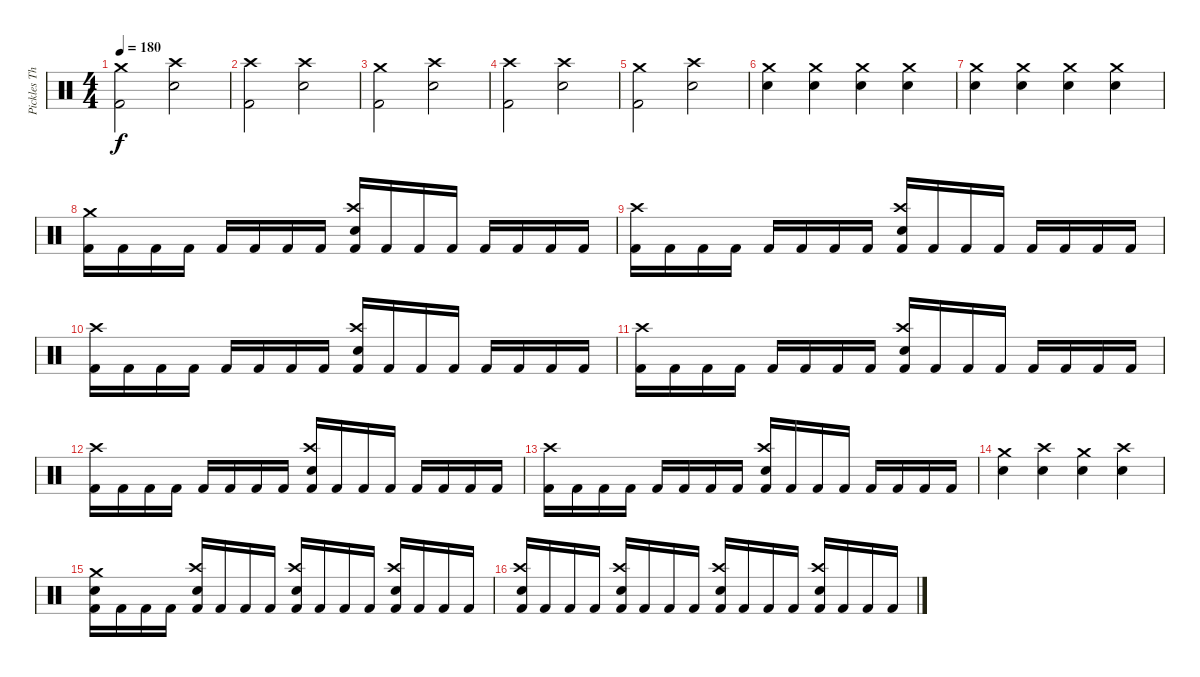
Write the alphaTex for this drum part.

\track ("Pickles The Drummer" "Pickles Th") {instrument percussion}
\staff {score}
\articulation defaults
\ts (4 4)
\tempo 180
\clef neutral
\ks c
("Crash medium (hit)" "Kick (hit) 2").2{dy f} ("Crash high (hit)" "Electric Snare (hit)").2 |
("Crash high (hit)" "Kick (hit) 2").2 ("Crash high (hit)" "Electric Snare (hit)").2 |
("Crash medium (hit)" "Kick (hit) 2").2 ("Crash high (hit)" "Electric Snare (hit)").2 |
("Crash high (hit)" "Kick (hit) 2").2 ("Crash high (hit)" "Electric Snare (hit)").2 |
("Crash medium (hit)" "Kick (hit) 2").2 ("Crash high (hit)" "Electric Snare (hit)").2 |
("Crash medium (hit)" "Electric Snare (hit)").4 ("Crash medium (hit)" "Electric Snare (hit)").4 ("Crash medium (hit)" "Electric Snare (hit)").4 ("Crash medium (hit)" "Electric Snare (hit)").4 |
("Crash medium (hit)" "Electric Snare (hit)").4 ("Crash medium (hit)" "Electric Snare (hit)").4 ("Crash medium (hit)" "Electric Snare (hit)").4 ("Crash medium (hit)" "Electric Snare (hit)").4 |
("Crash medium (hit)" "Kick (hit) 2").16 "Kick (hit) 2".16 "Kick (hit) 2".16 "Kick (hit) 2".16 "Kick (hit) 2".16 "Kick (hit) 2".16 "Kick (hit) 2".16 "Kick (hit) 2".16 ("Crash high (hit)" "Kick (hit) 2" "Electric Snare (hit)").16 "Kick (hit) 2".16 "Kick (hit) 2".16 "Kick (hit) 2".16 "Kick (hit) 2".16 "Kick (hit) 2".16 "Kick (hit) 2".16 "Kick (hit) 2".16 |
("Crash high (hit)" "Kick (hit) 2").16 "Kick (hit) 2".16 "Kick (hit) 2".16 "Kick (hit) 2".16 "Kick (hit) 2".16 "Kick (hit) 2".16 "Kick (hit) 2".16 "Kick (hit) 2".16 ("Crash high (hit)" "Kick (hit) 2" "Electric Snare (hit)").16 "Kick (hit) 2".16 "Kick (hit) 2".16 "Kick (hit) 2".16 "Kick (hit) 2".16 "Kick (hit) 2".16 "Kick (hit) 2".16 "Kick (hit) 2".16 |
("Crash high (hit)" "Kick (hit) 2").16 "Kick (hit) 2".16 "Kick (hit) 2".16 "Kick (hit) 2".16 "Kick (hit) 2".16 "Kick (hit) 2".16 "Kick (hit) 2".16 "Kick (hit) 2".16 ("Crash high (hit)" "Kick (hit) 2" "Electric Snare (hit)").16 "Kick (hit) 2".16 "Kick (hit) 2".16 "Kick (hit) 2".16 "Kick (hit) 2".16 "Kick (hit) 2".16 "Kick (hit) 2".16 "Kick (hit) 2".16 |
("Crash high (hit)" "Kick (hit) 2").16 "Kick (hit) 2".16 "Kick (hit) 2".16 "Kick (hit) 2".16 "Kick (hit) 2".16 "Kick (hit) 2".16 "Kick (hit) 2".16 "Kick (hit) 2".16 ("Crash high (hit)" "Kick (hit) 2" "Electric Snare (hit)").16 "Kick (hit) 2".16 "Kick (hit) 2".16 "Kick (hit) 2".16 "Kick (hit) 2".16 "Kick (hit) 2".16 "Kick (hit) 2".16 "Kick (hit) 2".16 |
("Crash high (hit)" "Kick (hit) 2").16 "Kick (hit) 2".16 "Kick (hit) 2".16 "Kick (hit) 2".16 "Kick (hit) 2".16 "Kick (hit) 2".16 "Kick (hit) 2".16 "Kick (hit) 2".16 ("Crash high (hit)" "Kick (hit) 2" "Electric Snare (hit)").16 "Kick (hit) 2".16 "Kick (hit) 2".16 "Kick (hit) 2".16 "Kick (hit) 2".16 "Kick (hit) 2".16 "Kick (hit) 2".16 "Kick (hit) 2".16 |
("Crash high (hit)" "Kick (hit) 2").16 "Kick (hit) 2".16 "Kick (hit) 2".16 "Kick (hit) 2".16 "Kick (hit) 2".16 "Kick (hit) 2".16 "Kick (hit) 2".16 "Kick (hit) 2".16 ("Crash high (hit)" "Kick (hit) 2" "Electric Snare (hit)").16 "Kick (hit) 2".16 "Kick (hit) 2".16 "Kick (hit) 2".16 "Kick (hit) 2".16 "Kick (hit) 2".16 "Kick (hit) 2".16 "Kick (hit) 2".16 |
("Crash medium (hit)" "Electric Snare (hit)").4 ("Crash high (hit)" "Electric Snare (hit)").4 ("Crash medium (hit)" "Electric Snare (hit)").4 ("Crash high (hit)" "Electric Snare (hit)").4 |
("Crash medium (hit)" "Kick (hit) 2" "Electric Snare (hit)").16 "Kick (hit) 2".16 "Kick (hit) 2".16 "Kick (hit) 2".16 ("Crash high (hit)" "Kick (hit) 2" "Electric Snare (hit)").16 "Kick (hit) 2".16 "Kick (hit) 2".16 "Kick (hit) 2".16 ("Crash high (hit)" "Kick (hit) 2" "Electric Snare (hit)").16 "Kick (hit) 2".16 "Kick (hit) 2".16 "Kick (hit) 2".16 ("Crash high (hit)" "Kick (hit) 2" "Electric Snare (hit)").16 "Kick (hit) 2".16 "Kick (hit) 2".16 "Kick (hit) 2".16 |
("Crash high (hit)" "Kick (hit) 2" "Electric Snare (hit)").16 "Kick (hit) 2".16 "Kick (hit) 2".16 "Kick (hit) 2".16 ("Crash high (hit)" "Kick (hit) 2" "Electric Snare (hit)").16 "Kick (hit) 2".16 "Kick (hit) 2".16 "Kick (hit) 2".16 ("Crash high (hit)" "Kick (hit) 2" "Electric Snare (hit)").16 "Kick (hit) 2".16 "Kick (hit) 2".16 "Kick (hit) 2".16 ("Crash high (hit)" "Kick (hit) 2" "Electric Snare (hit)").16 "Kick (hit) 2".16 "Kick (hit) 2".16 "Kick (hit) 2".16
